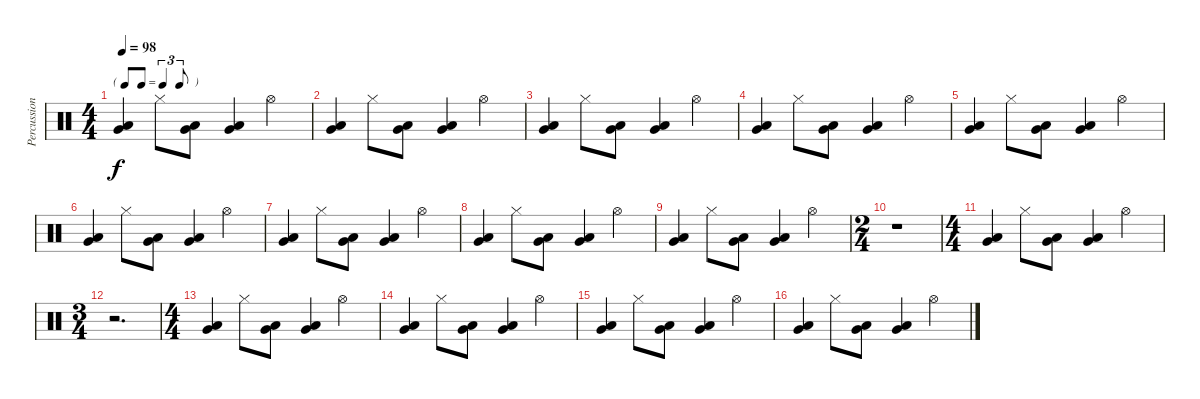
\track ("Percussion" "Percussion") {instrument percussion}
\staff {score}
\articulation defaults
\ts (4 4)
\tf triplet8th
\tempo 98
\clef neutral
\ks c
("Very Low Tom (hit)" "Low Floor Tom (hit)").4{dy f} "Hi-Hat (closed)".8 ("Very Low Tom (hit)" "Low Floor Tom (hit)").8 ("Very Low Tom (hit)" "Low Floor Tom (hit)").4 "Hi-Hat (open)".4 |
("Very Low Tom (hit)" "Low Floor Tom (hit)").4 "Hi-Hat (closed)".8 ("Very Low Tom (hit)" "Low Floor Tom (hit)").8 ("Very Low Tom (hit)" "Low Floor Tom (hit)").4 "Hi-Hat (open)".4 |
("Very Low Tom (hit)" "Low Floor Tom (hit)").4 "Hi-Hat (closed)".8 ("Very Low Tom (hit)" "Low Floor Tom (hit)").8 ("Very Low Tom (hit)" "Low Floor Tom (hit)").4 "Hi-Hat (open)".4 |
("Very Low Tom (hit)" "Low Floor Tom (hit)").4 "Hi-Hat (closed)".8 ("Very Low Tom (hit)" "Low Floor Tom (hit)").8 ("Very Low Tom (hit)" "Low Floor Tom (hit)").4 "Hi-Hat (open)".4 |
("Very Low Tom (hit)" "Low Floor Tom (hit)").4 "Hi-Hat (closed)".8 ("Very Low Tom (hit)" "Low Floor Tom (hit)").8 ("Very Low Tom (hit)" "Low Floor Tom (hit)").4 "Hi-Hat (open)".4 |
("Very Low Tom (hit)" "Low Floor Tom (hit)").4 "Hi-Hat (closed)".8 ("Very Low Tom (hit)" "Low Floor Tom (hit)").8 ("Very Low Tom (hit)" "Low Floor Tom (hit)").4 "Hi-Hat (open)".4 |
("Very Low Tom (hit)" "Low Floor Tom (hit)").4 "Hi-Hat (closed)".8 ("Very Low Tom (hit)" "Low Floor Tom (hit)").8 ("Very Low Tom (hit)" "Low Floor Tom (hit)").4 "Hi-Hat (open)".4 |
("Very Low Tom (hit)" "Low Floor Tom (hit)").4 "Hi-Hat (closed)".8 ("Very Low Tom (hit)" "Low Floor Tom (hit)").8 ("Very Low Tom (hit)" "Low Floor Tom (hit)").4 "Hi-Hat (open)".4 |
("Very Low Tom (hit)" "Low Floor Tom (hit)").4 "Hi-Hat (closed)".8 ("Very Low Tom (hit)" "Low Floor Tom (hit)").8 ("Very Low Tom (hit)" "Low Floor Tom (hit)").4 "Hi-Hat (open)".4 |
\ts (2 4)
r.1 |
\ts (4 4)
("Very Low Tom (hit)" "Low Floor Tom (hit)").4 "Hi-Hat (closed)".8 ("Very Low Tom (hit)" "Low Floor Tom (hit)").8 ("Very Low Tom (hit)" "Low Floor Tom (hit)").4 "Hi-Hat (open)".4 |
\ts (3 4)
r.2{d} |
\ts (4 4)
("Very Low Tom (hit)" "Low Floor Tom (hit)").4 "Hi-Hat (closed)".8 ("Very Low Tom (hit)" "Low Floor Tom (hit)").8 ("Very Low Tom (hit)" "Low Floor Tom (hit)").4 "Hi-Hat (open)".4 |
("Very Low Tom (hit)" "Low Floor Tom (hit)").4 "Hi-Hat (closed)".8 ("Very Low Tom (hit)" "Low Floor Tom (hit)").8 ("Very Low Tom (hit)" "Low Floor Tom (hit)").4 "Hi-Hat (open)".4 |
("Very Low Tom (hit)" "Low Floor Tom (hit)").4 "Hi-Hat (closed)".8 ("Very Low Tom (hit)" "Low Floor Tom (hit)").8 ("Very Low Tom (hit)" "Low Floor Tom (hit)").4 "Hi-Hat (open)".4 |
("Very Low Tom (hit)" "Low Floor Tom (hit)").4 "Hi-Hat (closed)".8 ("Very Low Tom (hit)" "Low Floor Tom (hit)").8 ("Very Low Tom (hit)" "Low Floor Tom (hit)").4 "Hi-Hat (open)".4
